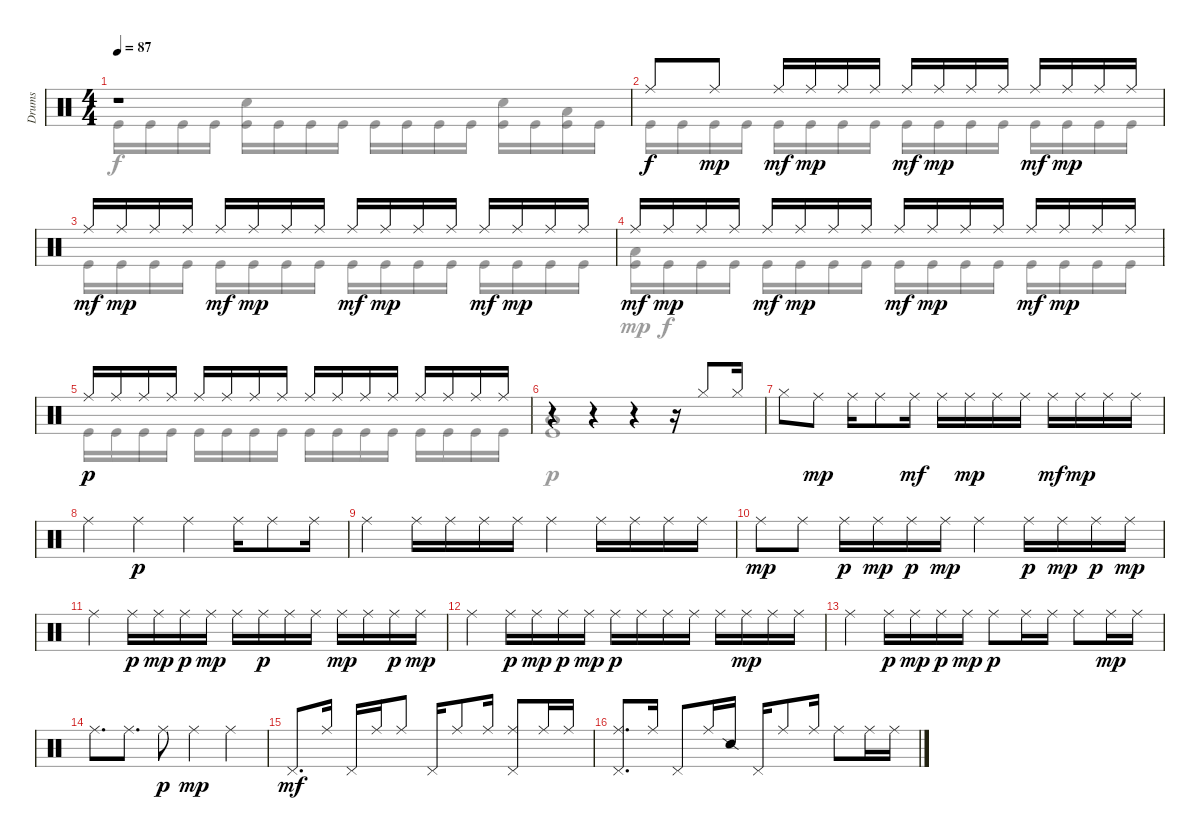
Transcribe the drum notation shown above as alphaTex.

\track ("Drums" "Drums") {instrument percussion}
\staff {score}
\articulation defaults
\voice
\ts (4 4)
\tempo 87
\clef neutral
\ks c
r.1{dy f} |
"Ride (middle)".8 "Ride (middle)".8{dy mp} "Ride (middle)".16{dy mf} "Ride (middle)".16{dy mp} "Ride (middle)".16 "Ride (middle)".16 "Ride (middle)".16{dy mf} "Ride (middle)".16{dy mp} "Ride (middle)".16 "Ride (middle)".16 "Ride (middle)".16{dy mf} "Ride (middle)".16{dy mp} "Ride (middle)".16 "Ride (middle)".16 |
"Ride (middle)".16{dy mf} "Ride (middle)".16{dy mp} "Ride (middle)".16 "Ride (middle)".16 "Ride (middle)".16{dy mf} "Ride (middle)".16{dy mp} "Ride (middle)".16 "Ride (middle)".16 "Ride (middle)".16{dy mf} "Ride (middle)".16{dy mp} "Ride (middle)".16 "Ride (middle)".16 "Ride (middle)".16{dy mf} "Ride (middle)".16{dy mp} "Ride (middle)".16 "Ride (middle)".16 |
"Ride (middle)".16{dy mf} "Ride (middle)".16{dy mp} "Ride (middle)".16 "Ride (middle)".16 "Ride (middle)".16{dy mf} "Ride (middle)".16{dy mp} "Ride (middle)".16 "Ride (middle)".16 "Ride (middle)".16{dy mf} "Ride (middle)".16{dy mp} "Ride (middle)".16 "Ride (middle)".16 "Ride (middle)".16{dy mf} "Ride (middle)".16{dy mp} "Ride (middle)".16 "Ride (middle)".16 |
"Ride (middle)".16{dy p} "Ride (middle)".16 "Ride (middle)".16 "Ride (middle)".16 "Ride (middle)".16 "Ride (middle)".16 "Ride (middle)".16 "Ride (middle)".16 "Ride (middle)".16 "Ride (middle)".16 "Ride (middle)".16 "Ride (middle)".16 "Ride (middle)".16 "Ride (middle)".16 "Ride (middle)".16 "Ride (middle)".16 |
r.4 r.4 r.4 r.16 "Hi-Hat (closed)".8 "Hi-Hat (closed)".16 |
"Hi-Hat (closed)".8 "Ride (middle)".8{dy mp} "Ride (middle)".16 "Ride (middle)".8 "Ride (middle)".16{dy mf} "Ride (middle)".16 "Ride (middle)".16{dy mp} "Ride (middle)".16 "Ride (middle)".16 "Ride (middle)".16{dy mf} "Ride (middle)".16{dy mp} "Ride (middle)".16 "Ride (middle)".16 |
"Ride (middle)".4 "Ride (middle)".4{dy p} "Ride (middle)".4 "Ride (middle)".16 "Ride (middle)".8 "Ride (middle)".16 |
"Ride (middle)".4 "Ride (middle)".16 "Ride (middle)".16 "Ride (middle)".16 "Ride (middle)".16 "Ride (middle)".4 "Ride (middle)".16 "Ride (middle)".16 "Ride (middle)".16 "Ride (middle)".16 |
"Ride (middle)".8{dy mp} "Ride (middle)".8 "Ride (middle)".16{dy p} "Ride (middle)".16{dy mp} "Ride (middle)".16{dy p} "Ride (middle)".16{dy mp} "Ride (middle)".4 "Ride (middle)".16{dy p} "Ride (middle)".16{dy mp} "Ride (middle)".16{dy p} "Ride (middle)".16{dy mp} |
"Ride (middle)".4 "Ride (middle)".16{dy p} "Ride (middle)".16{dy mp} "Ride (middle)".16{dy p} "Ride (middle)".16{dy mp} "Ride (middle)".16 "Ride (middle)".16{dy p} "Ride (middle)".16 "Ride (middle)".16 "Ride (middle)".16{dy mp} "Ride (middle)".16 "Ride (middle)".16{dy p} "Ride (middle)".16{dy mp} |
"Ride (middle)".4 "Ride (middle)".16{dy p} "Ride (middle)".16{dy mp} "Ride (middle)".16{dy p} "Ride (middle)".16{dy mp} "Ride (middle)".16{dy p} "Ride (middle)".16 "Ride (middle)".16 "Ride (middle)".16 "Ride (middle)".16 "Ride (middle)".16{dy mp} "Ride (middle)".16 "Ride (middle)".16 |
"Ride (middle)".4 "Ride (middle)".16{dy p} "Ride (middle)".16{dy mp} "Ride (middle)".16{dy p} "Ride (middle)".16{dy mp} "Ride (middle)".8{dy p} "Ride (middle)".16 "Ride (middle)".16 "Ride (middle)".8 "Ride (middle)".16{dy mp} "Ride (middle)".16 |
"Ride (middle)".8{d} "Ride (middle)".8{d} "Ride (middle)".8{dy p} "Ride (middle)".4{dy mp} "Ride (middle)".4 |
"Pedal Hi-Hat (hit)".8{d dy mf} "Ride (middle)".16 "Pedal Hi-Hat (hit)".16 "Ride (middle)".16 "Ride (middle)".8 "Pedal Hi-Hat (hit)".16 "Ride (middle)".8 "Ride (middle)".16 ("Ride (middle)" "Pedal Hi-Hat (hit)").8 "Ride (middle)".16 "Ride (middle)".16 |
("Ride (middle)" "Pedal Hi-Hat (hit)").8{d} "Ride (middle)".16 "Pedal Hi-Hat (hit)".8 "Ride (middle)".16 "Snare (side stick) 2".16 "Pedal Hi-Hat (hit)".16 "Ride (middle)".8 "Ride (middle)".16 "Ride (middle)".8 "Ride (middle)".16 "Ride (middle)".16
\voice
\clef neutral
\ottava regular
\simile none
\ks c "Kick (hit)".16{dy f} "Kick (hit)".16 "Kick (hit)".16 "Kick (hit)".16
("Snare (hit) 2" "Kick (hit)").16 "Kick (hit)".16 "Kick (hit)".16 "Kick (hit)".16 "Kick (hit)".16 "Kick (hit)".16 "Kick (hit)".16 "Kick (hit)".16 ("Snare (hit) 2" "Kick (hit)").16 "Kick (hit)".16 ("Low Floor Tom (hit)" "Kick (hit)").16 "Kick (hit)".16 |
"Kick (hit)".16 "Kick (hit)".16 "Kick (hit)".16 "Kick (hit)".16 "Kick (hit)".16 "Kick (hit)".16 "Kick (hit)".16 "Kick (hit)".16 "Kick (hit)".16 "Kick (hit)".16 "Kick (hit)".16 "Kick (hit)".16 "Kick (hit)".16 "Kick (hit)".16 "Kick (hit)".16 "Kick (hit)".16 |
"Kick (hit)".16 "Kick (hit)".16 "Kick (hit)".16 "Kick (hit)".16 "Kick (hit)".16 "Kick (hit)".16 "Kick (hit)".16 "Kick (hit)".16 "Kick (hit)".16 "Kick (hit)".16 "Kick (hit)".16 "Kick (hit)".16 "Kick (hit)".16 "Kick (hit)".16 "Kick (hit)".16 "Kick (hit)".16 |
("Low Floor Tom (hit)" "Kick (hit)").16{dy mp} "Kick (hit)".16{dy f} "Kick (hit)".16 "Kick (hit)".16 "Kick (hit)".16 "Kick (hit)".16 "Kick (hit)".16 "Kick (hit)".16 "Kick (hit)".16 "Kick (hit)".16 "Kick (hit)".16 "Kick (hit)".16 "Kick (hit)".16 "Kick (hit)".16 "Kick (hit)".16 "Kick (hit)".16 |
"Kick (hit)".16 "Kick (hit)".16 "Kick (hit)".16 "Kick (hit)".16 "Kick (hit)".16 "Kick (hit)".16 "Kick (hit)".16 "Kick (hit)".16 "Kick (hit)".16 "Kick (hit)".16 "Kick (hit)".16 "Kick (hit)".16 "Kick (hit)".16 "Kick (hit)".16 "Kick (hit)".16 "Kick (hit)".16 |
("Low Floor Tom (hit)" "Kick (hit)").1{dy p} |
|
|
|
|
|
|
|
|
|
